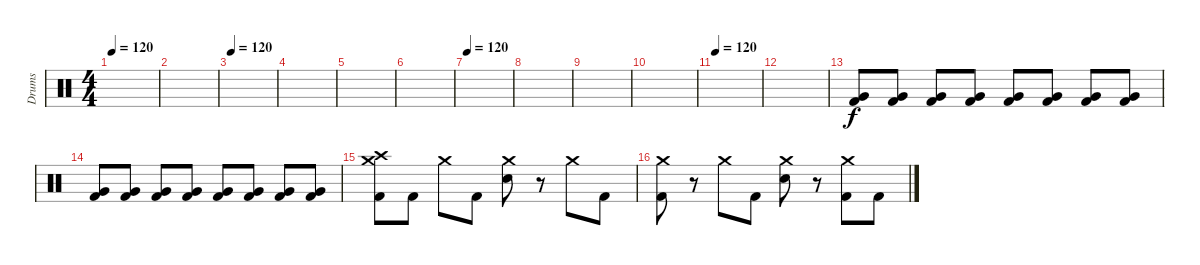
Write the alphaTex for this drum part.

\track ("Drums" "Drums") {instrument percussion}
\staff {score}
\articulation defaults
\ts (4 4)
\tempo 120
\clef neutral
\ks c
|
|
\tempo 120
|
|
|
|
\tempo 120
|
|
|
|
\tempo 120
|
|
("Very Low Tom (hit)" "Kick (hit) 2").8{volume 13} ("Very Low Tom (hit)" "Kick (hit) 2").8 ("Very Low Tom (hit)" "Kick (hit) 2").8 ("Very Low Tom (hit)" "Kick (hit) 2").8 ("Very Low Tom (hit)" "Kick (hit) 2").8 ("Very Low Tom (hit)" "Kick (hit) 2").8 ("Very Low Tom (hit)" "Kick (hit) 2").8 ("Very Low Tom (hit)" "Kick (hit) 2").8 |
("Very Low Tom (hit)" "Kick (hit) 2").8 ("Very Low Tom (hit)" "Kick (hit) 2").8 ("Very Low Tom (hit)" "Kick (hit) 2").8 ("Very Low Tom (hit)" "Kick (hit) 2").8 ("Very Low Tom (hit)" "Kick (hit) 2").8 ("Very Low Tom (hit)" "Kick (hit) 2").8 ("Very Low Tom (hit)" "Kick (hit) 2").8 ("Very Low Tom (hit)" "Kick (hit) 2").8 |
("Crash high (hit)" "Crash medium (hit)" "Kick (hit) 2").8 "Kick (hit) 2".8 "Crash medium (hit)".8 "Kick (hit) 2".8 ("Crash medium (hit)" "Snare (hit) 2").8 r.8 "Crash medium (hit)".8 "Kick (hit) 2".8 |
("Crash medium (hit)" "Kick (hit) 2").8 r.8 "Crash medium (hit)".8 "Kick (hit) 2".8 ("Crash medium (hit)" "Snare (hit) 2").8 r.8 ("Crash medium (hit)" "Kick (hit) 2").8 "Kick (hit) 2".8
